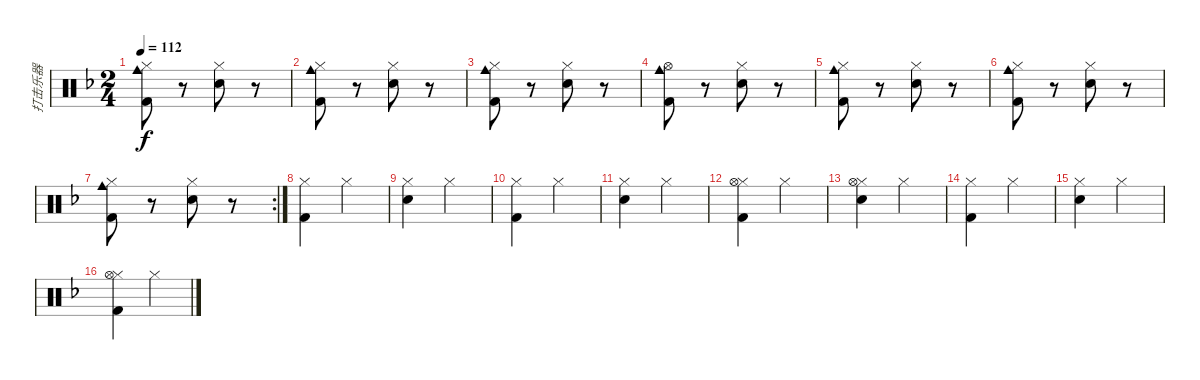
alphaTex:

\track ("打击乐器" "打击乐器") {instrument percussion}
\staff {score}
\articulation defaults
\ts (2 4)
\tempo 112
\clef neutral
\ks f
("Hi-Hat (closed)" "Cowbell medium (hit)" "Kick (hit) 2").8{dy f} r.8 ("Hi-Hat (closed)" "Electric Snare (hit)").8 r.8 |
("Hi-Hat (closed)" "Cowbell medium (hit)" "Kick (hit) 2").8 r.8 ("Hi-Hat (closed)" "Electric Snare (hit)").8 r.8 |
("Hi-Hat (closed)" "Cowbell medium (hit)" "Kick (hit) 2").8 r.8 ("Hi-Hat (closed)" "Electric Snare (hit)").8 r.8 |
("Hi-Hat (open)" "Cowbell medium (hit)" "Kick (hit) 2").8 r.8 ("Hi-Hat (closed)" "Electric Snare (hit)").8 r.8 |
("Hi-Hat (closed)" "Cowbell medium (hit)" "Kick (hit) 2").8 r.8 ("Hi-Hat (closed)" "Electric Snare (hit)").8 r.8 |
("Hi-Hat (closed)" "Cowbell medium (hit)" "Kick (hit) 2").8 r.8 ("Hi-Hat (closed)" "Electric Snare (hit)").8 r.8 |
\rc 2
("Hi-Hat (closed)" "Cowbell medium (hit)" "Kick (hit) 2").8 r.8 ("Hi-Hat (closed)" "Electric Snare (hit)").8 r.8 |
("Hi-Hat (closed)" "Kick (hit) 2").4 "Hi-Hat (closed)".4 |
("Hi-Hat (closed)" "Snare (hit) 2").4 "Hi-Hat (closed)".4 |
("Hi-Hat (closed)" "Kick (hit) 2").4 "Hi-Hat (closed)".4 |
("Hi-Hat (closed)" "Snare (hit) 2").4 "Hi-Hat (closed)".4 |
("Hi-Hat (closed)" "Hi-Hat (open)" "Kick (hit) 2").4 "Hi-Hat (closed)".4 |
("Hi-Hat (closed)" "Hi-Hat (open)" "Snare (hit) 2").4 "Hi-Hat (closed)".4 |
("Hi-Hat (closed)" "Kick (hit) 2").4 "Hi-Hat (closed)".4 |
("Hi-Hat (closed)" "Snare (hit) 2").4 "Hi-Hat (closed)".4 |
("Hi-Hat (closed)" "Hi-Hat (open)" "Kick (hit) 2").4 "Hi-Hat (closed)".4
